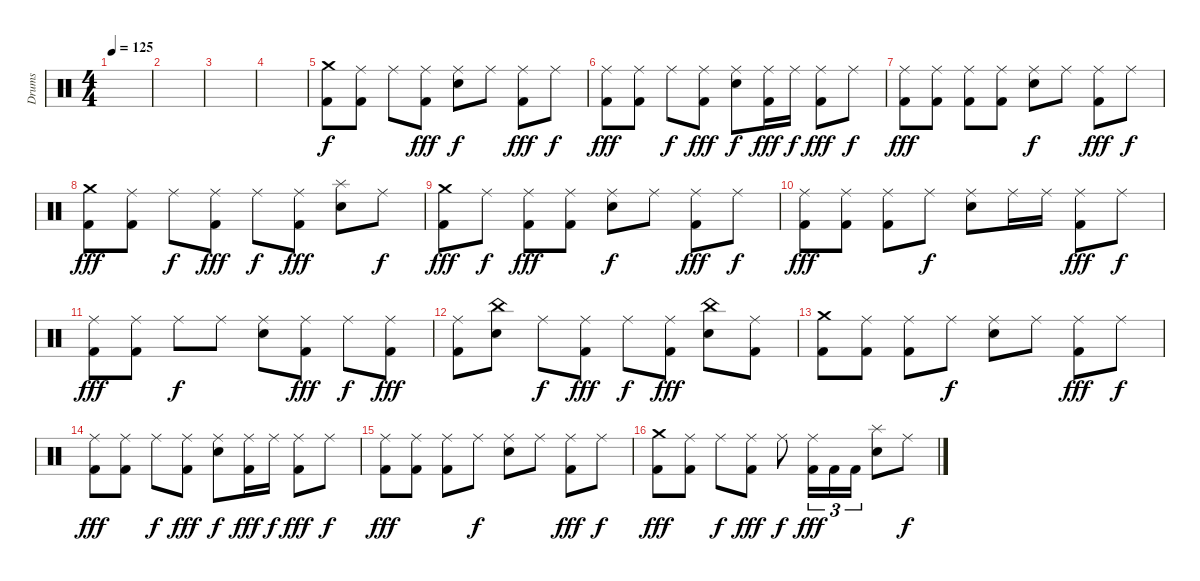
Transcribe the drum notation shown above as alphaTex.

\track ("Drums" "Drums") {instrument percussion}
\staff {score}
\articulation defaults
\ts (4 4)
\tempo 125
\clef neutral
\ks c
|
|
|
|
("Crash medium (hit)" "Kick (hit) 2").8 ("Ride (middle)" "Kick (hit) 2").8 "Ride (middle)".8{dy f} ("Ride (middle)" "Kick (hit) 2").8{dy fff} ("Ride (middle)" "Electric Snare (hit)").8{dy f} "Ride (middle)".8 ("Ride (middle)" "Kick (hit) 2").8{dy fff} "Ride (middle)".8{dy f} |
("Ride (middle)" "Kick (hit) 2").8{dy fff} ("Ride (middle)" "Kick (hit) 2").8 "Ride (middle)".8{dy f} ("Ride (middle)" "Kick (hit) 2").8{dy fff} ("Ride (middle)" "Electric Snare (hit)").8{dy f} ("Ride (middle)" "Kick (hit) 2").16{dy fff} "Ride (middle)".16{dy f} ("Ride (middle)" "Kick (hit) 2").8{dy fff} "Ride (middle)".8{dy f} |
("Ride (middle)" "Kick (hit) 2").8{dy fff} ("Ride (middle)" "Kick (hit) 2").8 ("Ride (middle)" "Kick (hit) 2").8 ("Ride (middle)" "Kick (hit) 2").8 ("Ride (middle)" "Electric Snare (hit)").8{dy f} "Ride (middle)".8 ("Ride (middle)" "Kick (hit) 2").8{dy fff} "Ride (middle)".8{dy f} |
("Crash medium (hit)" "Kick (hit) 2").8{dy fff} ("Ride (middle)" "Kick (hit) 2").8 "Ride (middle)".8{dy f} ("Ride (middle)" "Kick (hit) 2").8{dy fff} "Ride (middle)".8{dy f} ("Ride (middle)" "Kick (hit) 2").8{dy fff} ("Splash (hit)" "Electric Snare (hit)").8 "Ride (middle)".8{dy f} |
("Crash medium (hit)" "Kick (hit) 2").8{dy fff} "Ride (middle)".8{dy f} ("Ride (middle)" "Kick (hit) 2").8{dy fff} ("Ride (middle)" "Kick (hit) 2").8 ("Ride (middle)" "Electric Snare (hit)").8{dy f} "Ride (middle)".8 ("Ride (middle)" "Kick (hit) 2").8{dy fff} "Ride (middle)".8{dy f} |
("Ride (middle)" "Kick (hit) 2").8{dy fff} ("Ride (middle)" "Kick (hit) 2").8 ("Ride (middle)" "Kick (hit) 2").8 "Ride (middle)".8{dy f} ("Ride (middle)" "Electric Snare (hit)").8 "Ride (middle)".16 "Ride (middle)".16 ("Ride (middle)" "Kick (hit) 2").8{dy fff} "Ride (middle)".8{dy f} |
("Ride (middle)" "Kick (hit) 2").8{dy fff} ("Ride (middle)" "Kick (hit) 2").8 "Ride (middle)".8{dy f} "Ride (middle)".8 ("Ride (middle)" "Electric Snare (hit)").8 ("Ride (middle)" "Kick (hit) 2").8{dy fff} "Ride (middle)".8{dy f} ("Ride (middle)" "Kick (hit) 2").8{dy fff} |
("Ride (middle)" "Kick (hit) 2").8 ("China (hit)" "Electric Snare (hit)").8 "Ride (middle)".8{dy f} ("Ride (middle)" "Kick (hit) 2").8{dy fff} "Ride (middle)".8{dy f} ("Ride (middle)" "Kick (hit) 2").8{dy fff} ("China (hit)" "Electric Snare (hit)").8 ("Ride (middle)" "Kick (hit) 2").8 |
("Crash medium (hit)" "Kick (hit) 2").8 ("Ride (middle)" "Kick (hit) 2").8 ("Ride (middle)" "Kick (hit) 2").8 "Ride (middle)".8{dy f} ("Ride (middle)" "Electric Snare (hit)").8 "Ride (middle)".8 ("Ride (middle)" "Kick (hit) 2").8{dy fff} "Ride (middle)".8{dy f} |
("Ride (middle)" "Kick (hit) 2").8{dy fff} ("Ride (middle)" "Kick (hit) 2").8 "Ride (middle)".8{dy f} ("Ride (middle)" "Kick (hit) 2").8{dy fff} ("Ride (middle)" "Electric Snare (hit)").8{dy f} ("Ride (middle)" "Kick (hit) 2").16{dy fff} "Ride (middle)".16{dy f} ("Ride (middle)" "Kick (hit) 2").8{dy fff} "Ride (middle)".8{dy f} |
("Ride (middle)" "Kick (hit) 2").8{dy fff} ("Ride (middle)" "Kick (hit) 2").8 ("Ride (middle)" "Kick (hit) 2").8 "Ride (middle)".8{dy f} ("Ride (middle)" "Electric Snare (hit)").8 "Ride (middle)".8 ("Ride (middle)" "Kick (hit) 2").8{dy fff} "Ride (middle)".8{dy f} |
("Crash medium (hit)" "Kick (hit) 2").8{dy fff} ("Ride (middle)" "Kick (hit) 2").8 "Ride (middle)".8{dy f} ("Ride (middle)" "Kick (hit) 2").8{dy fff} "Ride (middle)".8{dy f} ("Ride (middle)" "Kick (hit) 2").16{tu (3 2) dy fff} "Kick (hit) 2".16{tu (3 2)} "Kick (hit) 2".16{tu (3 2)} ("Splash (hit)" "Electric Snare (hit)").8 "Ride (middle)".8{dy f}
